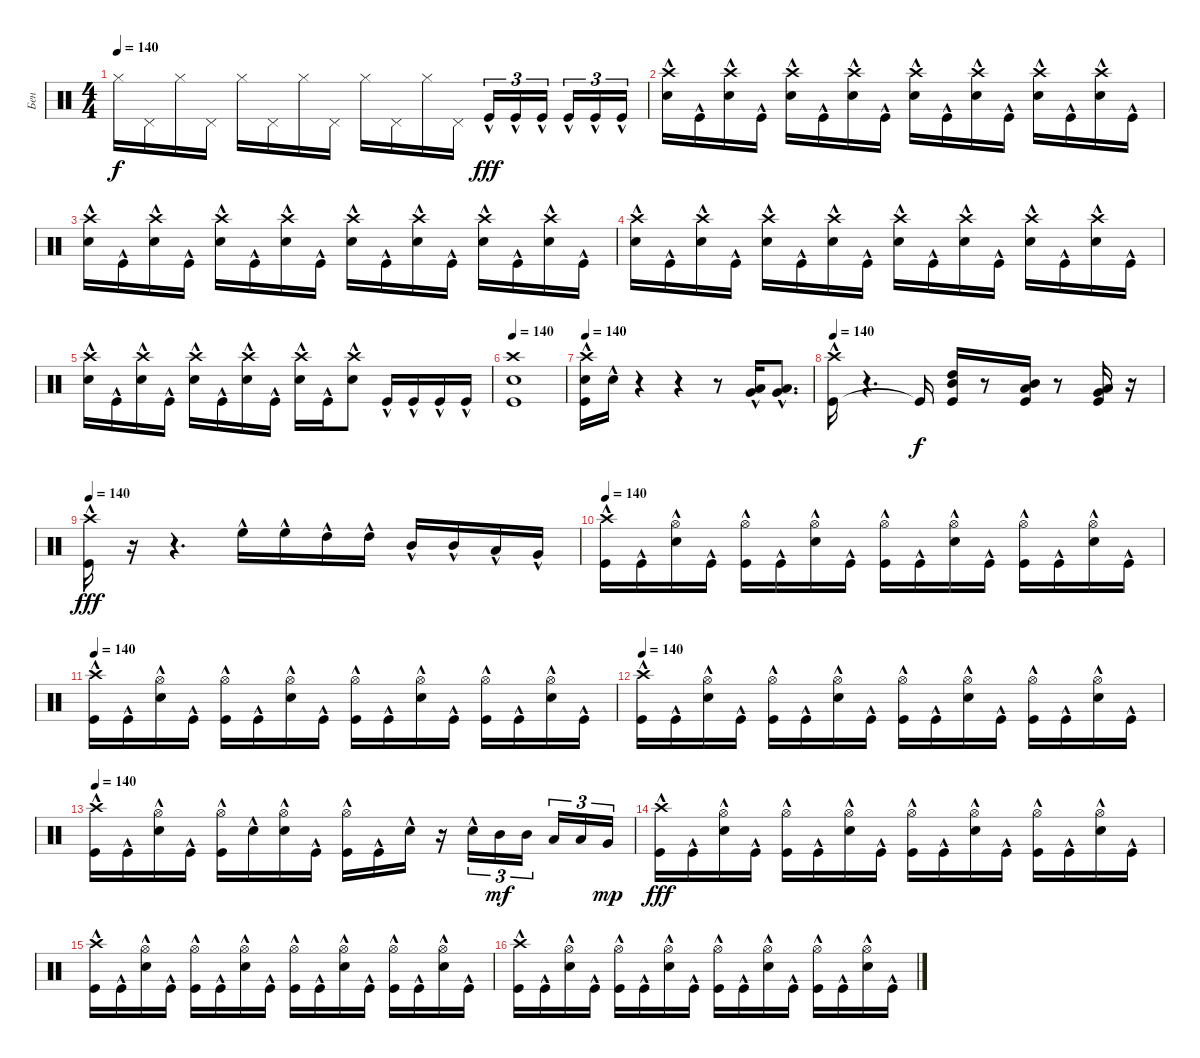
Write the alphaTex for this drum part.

\track ("Бен" "Бен") {instrument percussion}
\staff {score}
\articulation defaults
\ts (4 4)
\tempo 140
\clef neutral
\ks c "Hi-Hat (closed)".16{dy f} "Pedal Hi-Hat (hit)".16 "Hi-Hat (closed)".16 "Pedal Hi-Hat (hit)".16 "Hi-Hat (closed)".16 "Pedal Hi-Hat (hit)".16 "Hi-Hat (closed)".16 "Pedal Hi-Hat (hit)".16 "Hi-Hat (closed)".16 "Pedal Hi-Hat (hit)".16 "Hi-Hat (closed)".16 "Pedal Hi-Hat (hit)".16 "Kick (hit)"{hac}.16{tu (3 2) dy fff} "Kick (hit)"{hac}.16{tu (3 2)} "Kick (hit)"{hac}.16{tu (3 2) beam splitsecondary} "Kick (hit)"{hac}.16{tu (3 2)} "Kick (hit)"{hac}.16{tu (3 2)} "Kick (hit)"{hac}.16{tu (3 2)}
|
("Snare (hit) 2"{hac} "Crash high (hit)"{hac}).16 "Kick (hit)"{hac}.16 ("Crash high (hit)" "Snare (hit) 2"{hac}).16 "Kick (hit)"{hac}.16 ("Crash high (hit)" "Snare (hit) 2"{hac}).16 "Kick (hit)"{hac}.16 ("Crash high (hit)" "Snare (hit) 2"{hac}).16 "Kick (hit)"{hac}.16 ("Snare (hit) 2"{hac} "Crash high (hit)").16 "Kick (hit)"{hac}.16 ("Crash high (hit)" "Snare (hit) 2"{hac}).16 "Kick (hit)"{hac}.16 ("Crash high (hit)" "Snare (hit) 2"{hac}).16 "Kick (hit)"{hac}.16 ("Crash high (hit)" "Snare (hit) 2"{hac}).16 "Kick (hit)"{hac}.16 |
("Snare (hit) 2"{hac} "Crash high (hit)"{hac}).16 "Kick (hit)"{hac}.16 ("Crash high (hit)" "Snare (hit) 2"{hac}).16 "Kick (hit)"{hac}.16 ("Crash high (hit)" "Snare (hit) 2"{hac}).16 "Kick (hit)"{hac}.16 ("Crash high (hit)" "Snare (hit) 2"{hac}).16 "Kick (hit)"{hac}.16 ("Snare (hit) 2"{hac} "Crash high (hit)").16 "Kick (hit)"{hac}.16 ("Crash high (hit)" "Snare (hit) 2"{hac}).16 "Kick (hit)"{hac}.16 ("Crash high (hit)" "Snare (hit) 2"{hac}).16 "Kick (hit)"{hac}.16 ("Crash high (hit)" "Snare (hit) 2"{hac}).16 "Kick (hit)"{hac}.16 |
("Snare (hit) 2"{hac} "Crash high (hit)"{hac}).16 "Kick (hit)"{hac}.16 ("Crash high (hit)" "Snare (hit) 2"{hac}).16 "Kick (hit)"{hac}.16 ("Crash high (hit)" "Snare (hit) 2"{hac}).16 "Kick (hit)"{hac}.16 ("Crash high (hit)" "Snare (hit) 2"{hac}).16 "Kick (hit)"{hac}.16 ("Snare (hit) 2"{hac} "Crash high (hit)").16 "Kick (hit)"{hac}.16 ("Crash high (hit)" "Snare (hit) 2"{hac}).16 "Kick (hit)"{hac}.16 ("Crash high (hit)" "Snare (hit) 2"{hac}).16 "Kick (hit)"{hac}.16 ("Crash high (hit)" "Snare (hit) 2"{hac}).16 "Kick (hit)"{hac}.16 |
("Snare (hit) 2"{hac} "Crash high (hit)"{hac}).16 "Kick (hit)"{hac}.16 ("Crash high (hit)" "Snare (hit) 2"{hac}).16 "Kick (hit)"{hac}.16 ("Crash high (hit)" "Snare (hit) 2"{hac}).16 "Kick (hit)"{hac}.16 ("Crash high (hit)" "Snare (hit) 2"{hac}).16 "Kick (hit)"{hac}.16 ("Snare (hit) 2"{hac} "Crash high (hit)").16 "Kick (hit)"{hac}.16 ("Snare (hit) 2"{hac} "Crash high (hit)").8 "Kick (hit)"{hac}.16 "Kick (hit)"{hac}.16 "Kick (hit)"{hac}.16 "Kick (hit)"{hac}.16 |
\tempo 140
("Kick (hit)" "Crash high (hit)" "Snare (hit) 2").1 |
\tempo 140
("Crash high (hit)" "Kick (hit)" "Snare (hit) 2"{hac}).16 "Snare (hit) 2"{hac}.16 r.4 r.4 r.8 ("Low Tom (hit)"{hac} "Very Low Tom (hit)"{hac}).16 ("Low Tom (hit)"{hac} "Very Low Tom (hit)"{hac}).8{d} |
\tempo 140
("Kick (hit)"{hac} "Crash high (hit)"{hac}).16 r.4{d} "Kick (hit)"{t}.16{dy f} ("High Tom (hit)" "Kick (hit)" "Mid Tom (hit)").16 r.8 ("Mid Tom (hit)" "Kick (hit)" "Low Tom (hit)").16 r.8 ("Very Low Tom (hit)" "Kick (hit)" "Low Tom (hit)").16 r.16 |
\tempo 140
("Kick (hit)"{hac} "Crash high (hit)"{hac}).16{dy fff} r.16 r.4{d} "High Floor Tom (hit)"{hac}.16 "High Floor Tom (hit)"{hac}.16 "High Tom (hit)"{hac}.16 "High Tom (hit)"{hac}.16 "Mid Tom (hit)"{hac}.16 "Mid Tom (hit)"{hac}.16 "Low Tom (hit)"{hac}.16 "Very Low Tom (hit)"{hac}.16 |
\tempo 140
("Kick (hit)"{hac} "Crash high (hit)"{hac}).16 "Kick (hit)"{hac}.16 ("Snare (hit) 2"{hac} "Hi-Hat (open)").16 "Kick (hit)"{hac}.16 ("Kick (hit)"{hac} "Hi-Hat (open)").16 "Kick (hit)"{hac}.16 ("Snare (hit) 2"{hac} "Hi-Hat (open)").16 "Kick (hit)"{hac}.16 ("Kick (hit)"{hac} "Hi-Hat (open)").16 "Kick (hit)"{hac}.16 ("Snare (hit) 2"{hac} "Hi-Hat (open)").16 "Kick (hit)"{hac}.16 ("Kick (hit)"{hac} "Hi-Hat (open)").16 "Kick (hit)"{hac}.16 ("Snare (hit) 2"{hac} "Hi-Hat (open)").16 "Kick (hit)"{hac}.16 |
\tempo 140
("Kick (hit)"{hac} "Crash high (hit)"{hac}).16 "Kick (hit)"{hac}.16 ("Snare (hit) 2"{hac} "Hi-Hat (open)").16 "Kick (hit)"{hac}.16 ("Kick (hit)"{hac} "Hi-Hat (open)").16 "Kick (hit)"{hac}.16 ("Snare (hit) 2"{hac} "Hi-Hat (open)").16 "Kick (hit)"{hac}.16 ("Kick (hit)"{hac} "Hi-Hat (open)").16 "Kick (hit)"{hac}.16 ("Snare (hit) 2"{hac} "Hi-Hat (open)").16 "Kick (hit)"{hac}.16 ("Kick (hit)"{hac} "Hi-Hat (open)").16 "Kick (hit)"{hac}.16 ("Snare (hit) 2"{hac} "Hi-Hat (open)").16 "Kick (hit)"{hac}.16 |
\tempo 140
("Kick (hit)"{hac} "Crash high (hit)"{hac}).16 "Kick (hit)"{hac}.16 ("Snare (hit) 2"{hac} "Hi-Hat (open)").16 "Kick (hit)"{hac}.16 ("Kick (hit)"{hac} "Hi-Hat (open)").16 "Kick (hit)"{hac}.16 ("Snare (hit) 2"{hac} "Hi-Hat (open)").16 "Kick (hit)"{hac}.16 ("Kick (hit)"{hac} "Hi-Hat (open)").16 "Kick (hit)"{hac}.16 ("Snare (hit) 2"{hac} "Hi-Hat (open)").16 "Kick (hit)"{hac}.16 ("Kick (hit)"{hac} "Hi-Hat (open)").16 "Kick (hit)"{hac}.16 ("Snare (hit) 2"{hac} "Hi-Hat (open)").16 "Kick (hit)"{hac}.16 |
\tempo 140
("Kick (hit)"{hac} "Crash high (hit)"{hac}).16 "Kick (hit)"{hac}.16 ("Snare (hit) 2"{hac} "Hi-Hat (open)").16 "Kick (hit)"{hac}.16 ("Kick (hit)"{hac} "Hi-Hat (open)").16 "Snare (hit)"{hac}.16 ("Snare (hit) 2"{hac} "Hi-Hat (open)").16 "Kick (hit)"{hac}.16 ("Kick (hit)"{hac} "Hi-Hat (open)").16 "Kick (hit)"{hac}.16 "Snare (hit) 2"{hac}.16 r.16 "Snare (hit) 2"{hac}.16{tu (3 2)} "Mid Tom (hit)".16{tu (3 2) dy mf} "Mid Tom (hit)".16{tu (3 2) beam splitsecondary} "Low Tom (hit)".16{tu (3 2)} "Low Tom (hit)".16{tu (3 2)} "Very Low Tom (hit)".16{tu (3 2) dy mp} |
("Kick (hit)"{hac} "Crash high (hit)"{hac}).16{dy fff} "Kick (hit)"{hac}.16 ("Snare (hit) 2"{hac} "Hi-Hat (open)").16 "Kick (hit)"{hac}.16 ("Kick (hit)"{hac} "Hi-Hat (open)").16 "Kick (hit)"{hac}.16 ("Snare (hit) 2"{hac} "Hi-Hat (open)").16 "Kick (hit)"{hac}.16 ("Kick (hit)"{hac} "Hi-Hat (open)").16 "Kick (hit)"{hac}.16 ("Snare (hit) 2"{hac} "Hi-Hat (open)").16 "Kick (hit)"{hac}.16 ("Kick (hit)"{hac} "Hi-Hat (open)").16 "Kick (hit)"{hac}.16 ("Snare (hit) 2"{hac} "Hi-Hat (open)").16 "Kick (hit)"{hac}.16 |
("Kick (hit)"{hac} "Crash high (hit)"{hac}).16 "Kick (hit)"{hac}.16 ("Snare (hit) 2"{hac} "Hi-Hat (open)").16 "Kick (hit)"{hac}.16 ("Kick (hit)"{hac} "Hi-Hat (open)").16 "Kick (hit)"{hac}.16 ("Snare (hit) 2"{hac} "Hi-Hat (open)").16 "Kick (hit)"{hac}.16 ("Kick (hit)"{hac} "Hi-Hat (open)").16 "Kick (hit)"{hac}.16 ("Snare (hit) 2"{hac} "Hi-Hat (open)").16 "Kick (hit)"{hac}.16 ("Kick (hit)"{hac} "Hi-Hat (open)").16 "Kick (hit)"{hac}.16 ("Snare (hit) 2"{hac} "Hi-Hat (open)").16 "Kick (hit)"{hac}.16 |
("Kick (hit)"{hac} "Crash high (hit)"{hac}).16 "Kick (hit)"{hac}.16 ("Snare (hit) 2"{hac} "Hi-Hat (open)").16 "Kick (hit)"{hac}.16 ("Kick (hit)"{hac} "Hi-Hat (open)").16 "Kick (hit)"{hac}.16 ("Snare (hit) 2"{hac} "Hi-Hat (open)").16 "Kick (hit)"{hac}.16 ("Kick (hit)"{hac} "Hi-Hat (open)").16 "Kick (hit)"{hac}.16 ("Snare (hit) 2"{hac} "Hi-Hat (open)").16 "Kick (hit)"{hac}.16 ("Kick (hit)"{hac} "Hi-Hat (open)").16 "Kick (hit)"{hac}.16 ("Snare (hit) 2"{hac} "Hi-Hat (open)").16 "Kick (hit)"{hac}.16
